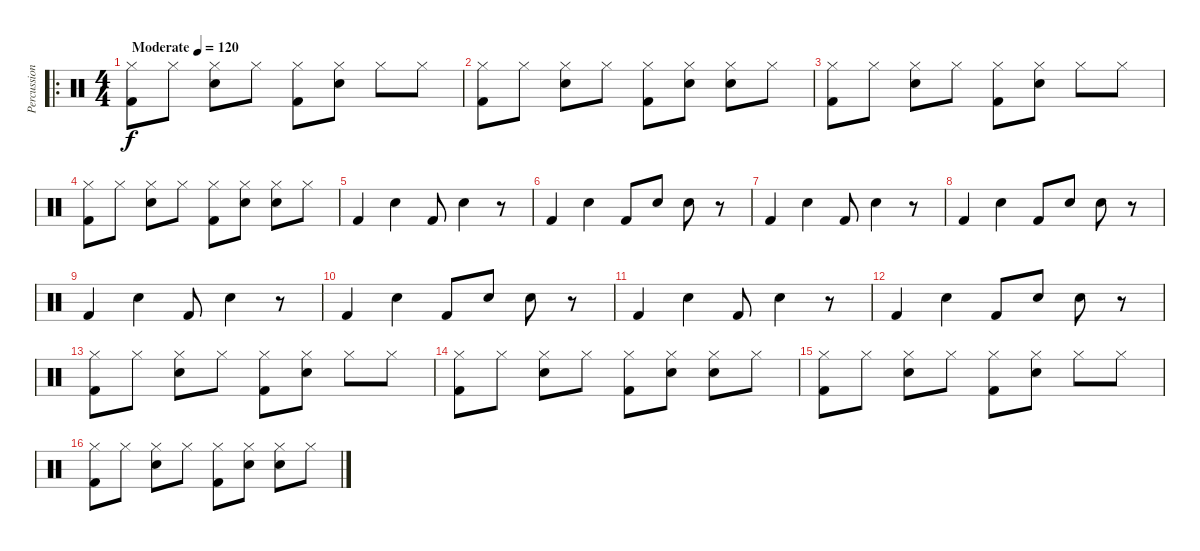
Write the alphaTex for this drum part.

\track ("Percussion" "Percussion") {instrument percussion}
\staff {score}
\articulation defaults
\ro
\ts (4 4)
\tempo (120 "Moderate")
\clef neutral
\ks c
("Hi-Hat (closed)" "Kick (hit) 2").8{dy f} "Hi-Hat (closed)".8 ("Hi-Hat (closed)" "Snare (hit) 2").8 "Hi-Hat (closed)".8 ("Hi-Hat (closed)" "Kick (hit) 2").8 ("Hi-Hat (closed)" "Snare (hit) 2").8 "Hi-Hat (closed)".8 "Hi-Hat (closed)".8 |
("Hi-Hat (closed)" "Kick (hit) 2").8 "Hi-Hat (closed)".8 ("Hi-Hat (closed)" "Snare (hit) 2").8 "Hi-Hat (closed)".8 ("Hi-Hat (closed)" "Kick (hit) 2").8 ("Hi-Hat (closed)" "Snare (hit) 2").8 ("Hi-Hat (closed)" "Snare (hit) 2").8 "Hi-Hat (closed)".8 |
("Hi-Hat (closed)" "Kick (hit) 2").8 "Hi-Hat (closed)".8 ("Hi-Hat (closed)" "Snare (hit) 2").8 "Hi-Hat (closed)".8 ("Hi-Hat (closed)" "Kick (hit) 2").8 ("Hi-Hat (closed)" "Snare (hit) 2").8 "Hi-Hat (closed)".8 "Hi-Hat (closed)".8 |
("Hi-Hat (closed)" "Kick (hit) 2").8 "Hi-Hat (closed)".8 ("Hi-Hat (closed)" "Snare (hit) 2").8 "Hi-Hat (closed)".8 ("Hi-Hat (closed)" "Kick (hit) 2").8 ("Hi-Hat (closed)" "Snare (hit) 2").8 ("Hi-Hat (closed)" "Snare (hit) 2").8 "Hi-Hat (closed)".8 |
"Kick (hit) 2".4 "Snare (hit) 2".4 "Kick (hit) 2".8 "Snare (hit) 2".4 r.8 |
"Kick (hit) 2".4 "Snare (hit) 2".4 "Kick (hit) 2".8 "Snare (hit) 2".8 "Snare (hit) 2".8 r.8 |
"Kick (hit) 2".4 "Snare (hit) 2".4 "Kick (hit) 2".8 "Snare (hit) 2".4 r.8 |
"Kick (hit) 2".4 "Snare (hit) 2".4 "Kick (hit) 2".8 "Snare (hit) 2".8 "Snare (hit) 2".8 r.8 |
"Kick (hit) 2".4 "Snare (hit) 2".4 "Kick (hit) 2".8 "Snare (hit) 2".4 r.8 |
"Kick (hit) 2".4 "Snare (hit) 2".4 "Kick (hit) 2".8 "Snare (hit) 2".8 "Snare (hit) 2".8 r.8 |
"Kick (hit) 2".4 "Snare (hit) 2".4 "Kick (hit) 2".8 "Snare (hit) 2".4 r.8 |
"Kick (hit) 2".4 "Snare (hit) 2".4 "Kick (hit) 2".8 "Snare (hit) 2".8 "Snare (hit) 2".8 r.8 |
("Hi-Hat (closed)" "Kick (hit) 2").8 "Hi-Hat (closed)".8 ("Hi-Hat (closed)" "Snare (hit) 2").8 "Hi-Hat (closed)".8 ("Hi-Hat (closed)" "Kick (hit) 2").8 ("Hi-Hat (closed)" "Snare (hit) 2").8 "Hi-Hat (closed)".8 "Hi-Hat (closed)".8 |
("Hi-Hat (closed)" "Kick (hit) 2").8 "Hi-Hat (closed)".8 ("Hi-Hat (closed)" "Snare (hit) 2").8 "Hi-Hat (closed)".8 ("Hi-Hat (closed)" "Kick (hit) 2").8 ("Hi-Hat (closed)" "Snare (hit) 2").8 ("Hi-Hat (closed)" "Snare (hit) 2").8 "Hi-Hat (closed)".8 |
("Hi-Hat (closed)" "Kick (hit) 2").8 "Hi-Hat (closed)".8 ("Hi-Hat (closed)" "Snare (hit) 2").8 "Hi-Hat (closed)".8 ("Hi-Hat (closed)" "Kick (hit) 2").8 ("Hi-Hat (closed)" "Snare (hit) 2").8 "Hi-Hat (closed)".8 "Hi-Hat (closed)".8 |
("Hi-Hat (closed)" "Kick (hit) 2").8 "Hi-Hat (closed)".8 ("Hi-Hat (closed)" "Snare (hit) 2").8 "Hi-Hat (closed)".8 ("Hi-Hat (closed)" "Kick (hit) 2").8 ("Hi-Hat (closed)" "Snare (hit) 2").8 ("Hi-Hat (closed)" "Snare (hit) 2").8 "Hi-Hat (closed)".8
